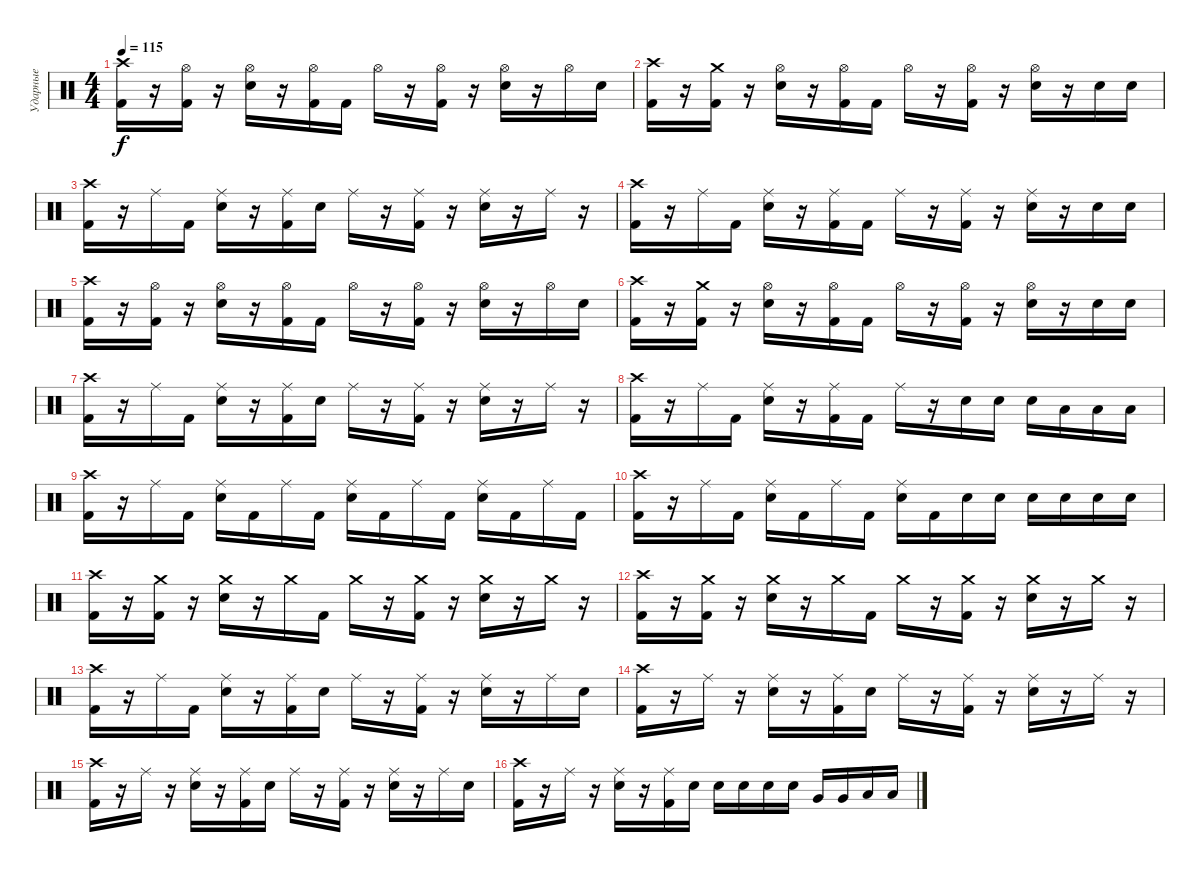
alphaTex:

\track ("Ударные" "Ударные") {instrument percussion}
\staff {score}
\articulation defaults
\ts (4 4)
\tempo 115
\clef neutral
\ks c
("Crash high (hit)" "Kick (hit) 2").16{dy f} r.16 ("Hi-Hat (open)" "Kick (hit) 2").16 r.16 ("Hi-Hat (open)" "Electric Snare (hit)").16 r.16 ("Hi-Hat (open)" "Kick (hit) 2").16 "Kick (hit) 2".16 "Hi-Hat (open)".16 r.16 ("Hi-Hat (open)" "Kick (hit) 2").16 r.16 ("Hi-Hat (open)" "Electric Snare (hit)").16 r.16 "Hi-Hat (open)".16 "Electric Snare (hit)".16 |
("Crash high (hit)" "Kick (hit) 2").16 r.16 ("Crash medium (hit)" "Kick (hit) 2").16 r.16 ("Hi-Hat (open)" "Electric Snare (hit)").16 r.16 ("Hi-Hat (open)" "Kick (hit) 2").16 "Kick (hit) 2".16 "Hi-Hat (open)".16 r.16 ("Hi-Hat (open)" "Kick (hit) 2").16 r.16 ("Hi-Hat (open)" "Electric Snare (hit)").16 r.16 "Electric Snare (hit)".16 "Electric Snare (hit)".16 |
("Crash high (hit)" "Kick (hit) 2").16 r.16 "Ride (middle)".16 "Kick (hit) 2".16 ("Ride (middle)" "Electric Snare (hit)").16 r.16 ("Ride (middle)" "Kick (hit) 2").16 "Electric Snare (hit)".16 "Ride (middle)".16 r.16 ("Ride (middle)" "Kick (hit) 2").16 r.16 ("Ride (middle)" "Electric Snare (hit)").16 r.16 "Ride (middle)".16 r.16 |
("Crash high (hit)" "Kick (hit) 2").16 r.16 "Ride (middle)".16 "Kick (hit) 2".16 ("Ride (middle)" "Electric Snare (hit)").16 r.16 ("Ride (middle)" "Kick (hit) 2").16 "Kick (hit) 2".16 "Ride (middle)".16 r.16 ("Ride (middle)" "Kick (hit) 2").16 r.16 ("Ride (middle)" "Electric Snare (hit)").16 r.16 "Electric Snare (hit)".16 "Electric Snare (hit)".16 |
("Crash high (hit)" "Kick (hit) 2").16 r.16 ("Hi-Hat (open)" "Kick (hit) 2").16 r.16 ("Hi-Hat (open)" "Electric Snare (hit)").16 r.16 ("Hi-Hat (open)" "Kick (hit) 2").16 "Kick (hit) 2".16 "Hi-Hat (open)".16 r.16 ("Hi-Hat (open)" "Kick (hit) 2").16 r.16 ("Hi-Hat (open)" "Electric Snare (hit)").16 r.16 "Hi-Hat (open)".16 "Electric Snare (hit)".16 |
("Crash high (hit)" "Kick (hit) 2").16 r.16 ("Crash medium (hit)" "Kick (hit) 2").16 r.16 ("Hi-Hat (open)" "Electric Snare (hit)").16 r.16 ("Hi-Hat (open)" "Kick (hit) 2").16 "Kick (hit) 2".16 "Hi-Hat (open)".16 r.16 ("Hi-Hat (open)" "Kick (hit) 2").16 r.16 ("Hi-Hat (open)" "Electric Snare (hit)").16 r.16 "Electric Snare (hit)".16 "Electric Snare (hit)".16 |
("Crash high (hit)" "Kick (hit) 2").16 r.16 "Ride (middle)".16 "Kick (hit) 2".16 ("Ride (middle)" "Electric Snare (hit)").16 r.16 ("Ride (middle)" "Kick (hit) 2").16 "Electric Snare (hit)".16 "Ride (middle)".16 r.16 ("Ride (middle)" "Kick (hit) 2").16 r.16 ("Ride (middle)" "Electric Snare (hit)").16 r.16 "Ride (middle)".16 r.16 |
("Crash high (hit)" "Kick (hit) 2").16 r.16 "Ride (middle)".16 "Kick (hit) 2".16 ("Ride (middle)" "Electric Snare (hit)").16 r.16 ("Ride (middle)" "Kick (hit) 2").16 "Kick (hit) 2".16 "Ride (middle)".16 r.16 "Electric Snare (hit)".16 "Electric Snare (hit)".16 "Electric Snare (hit)".16 "Low Floor Tom (hit)".16 "Low Floor Tom (hit)".16 "Low Floor Tom (hit)".16 |
("Crash high (hit)" "Kick (hit) 2").16 r.16 "Ride (middle)".16 "Kick (hit) 2".16 ("Ride (middle)" "Electric Snare (hit)").16 "Kick (hit) 2".16 "Ride (middle)".16 "Kick (hit) 2".16 ("Ride (middle)" "Electric Snare (hit)").16 "Kick (hit) 2".16 "Ride (middle)".16 "Kick (hit) 2".16 ("Ride (middle)" "Electric Snare (hit)").16 "Kick (hit) 2".16 "Ride (middle)".16 "Kick (hit) 2".16 |
("Crash high (hit)" "Kick (hit) 2").16 r.16 "Ride (middle)".16 "Kick (hit) 2".16 ("Ride (middle)" "Electric Snare (hit)").16 "Kick (hit) 2".16 "Ride (middle)".16 "Kick (hit) 2".16 ("Ride (middle)" "Electric Snare (hit)").16 "Kick (hit) 2".16 "Electric Snare (hit)".16 "Electric Snare (hit)".16 "Electric Snare (hit)".16 "Electric Snare (hit)".16 "Electric Snare (hit)".16 "Electric Snare (hit)".16 |
("Crash high (hit)" "Kick (hit) 2").16 r.16 ("Crash medium (hit)" "Kick (hit) 2").16 r.16 ("Crash medium (hit)" "Electric Snare (hit)").16 r.16 "Crash medium (hit)".16 "Kick (hit) 2".16 "Crash medium (hit)".16 r.16 ("Crash medium (hit)" "Kick (hit) 2").16 r.16 ("Crash medium (hit)" "Electric Snare (hit)").16 r.16 "Crash medium (hit)".16 r.16 |
("Crash high (hit)" "Kick (hit) 2").16 r.16 ("Crash medium (hit)" "Kick (hit) 2").16 r.16 ("Crash medium (hit)" "Electric Snare (hit)").16 r.16 "Crash medium (hit)".16 "Kick (hit) 2".16 "Crash medium (hit)".16 r.16 ("Crash medium (hit)" "Kick (hit) 2").16 r.16 ("Crash medium (hit)" "Electric Snare (hit)").16 r.16 "Crash medium (hit)".16 r.16 |
("Crash high (hit)" "Kick (hit) 2").16 r.16 "Ride (middle)".16 "Kick (hit) 2".16 ("Ride (middle)" "Electric Snare (hit)").16 r.16 ("Ride (middle)" "Kick (hit) 2").16 "Electric Snare (hit)".16 "Ride (middle)".16 r.16 ("Ride (middle)" "Kick (hit) 2").16 r.16 ("Ride (middle)" "Electric Snare (hit)").16 r.16 "Ride (middle)".16 "Electric Snare (hit)".16 |
("Crash high (hit)" "Kick (hit) 2").16 r.16 "Ride (middle)".16 r.16 ("Ride (middle)" "Electric Snare (hit)").16 r.16 ("Ride (middle)" "Kick (hit) 2").16 "Electric Snare (hit)".16 "Ride (middle)".16 r.16 ("Ride (middle)" "Kick (hit) 2").16 r.16 ("Ride (middle)" "Electric Snare (hit)").16 r.16 "Ride (middle)".16 r.16 |
("Crash high (hit)" "Kick (hit) 2").16 r.16 "Ride (middle)".16 r.16 ("Ride (middle)" "Electric Snare (hit)").16 r.16 ("Ride (middle)" "Kick (hit) 2").16 "Electric Snare (hit)".16 "Ride (middle)".16 r.16 ("Ride (middle)" "Kick (hit) 2").16 r.16 ("Ride (middle)" "Electric Snare (hit)").16 r.16 "Ride (middle)".16 "Electric Snare (hit)".16 |
("Crash high (hit)" "Kick (hit) 2").16 r.16 "Ride (middle)".16 r.16 ("Ride (middle)" "Electric Snare (hit)").16 r.16 ("Ride (middle)" "Kick (hit) 2").16 "Electric Snare (hit)".16 "Electric Snare (hit)".16 "Electric Snare (hit)".16 "Electric Snare (hit)".16 "Electric Snare (hit)".16 "Very Low Tom (hit)".16 "Very Low Tom (hit)".16 "Low Floor Tom (hit)".16 "Low Floor Tom (hit)".16
